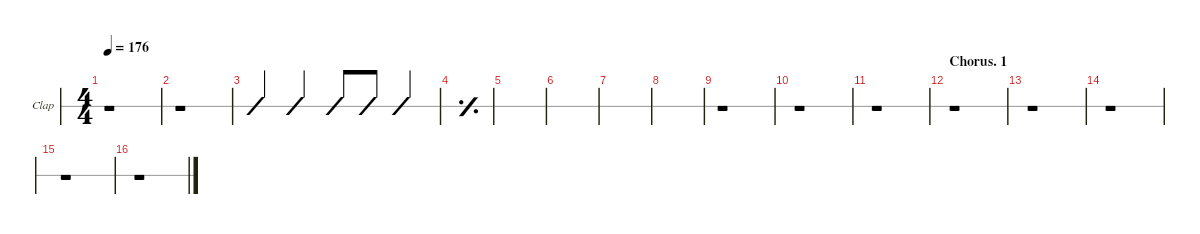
\defaultSystemsLayout 4
\hideDynamics
\bracketExtendMode nobrackets
\firstSystemTrackNameOrientation horizontal
\track ("Clap" "Clap") {defaultSystemsLayout 4 instrument percussion}
\staff {slash}
\articulation defaults
\ts (4 4)
\tempo 176
\clef neutral
\ks f#
r.1{dy fff} |
r.1 |
"Hand Clap (hit)"{acc forcenatural}.4 "Hand Clap (hit)"{acc forcenatural}.4 "Hand Clap (hit)"{acc forcenatural}.8 "Hand Clap (hit)"{acc forcenatural}.8 "Hand Clap (hit)"{acc forcenatural}.4 |
\simile simple
|
|
|
|
|
\simile none
r.1 |
r.1 |
r.1 |
\section ("" "Chorus. 1")
r.1 |
r.1 |
r.1 |
r.1 |
r.1
